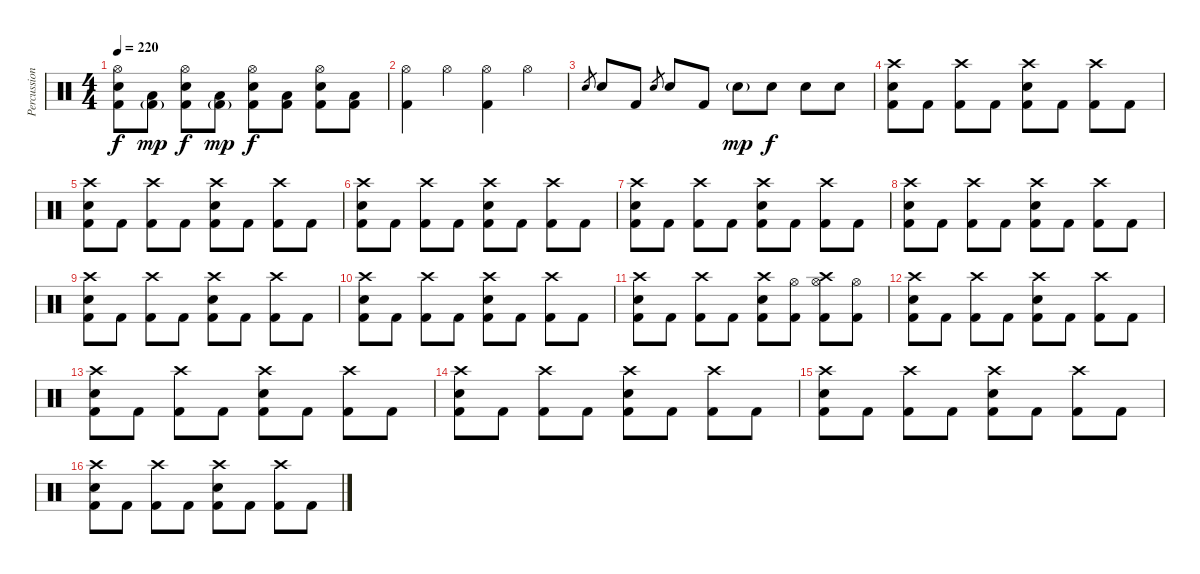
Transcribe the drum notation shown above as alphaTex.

\track ("Percussions" "Percussion") {instrument percussion}
\staff {score}
\articulation defaults
\ts (4 4)
\tempo 220
\clef neutral
\ks c
("Hi-Hat (open)" "Electric Snare (hit)" "Kick (hit) 2").8{dy f} ("Low Tom (hit)" "Kick (hit) 2"{g}).8{dy mp} ("Hi-Hat (open)" "Electric Snare (hit)" "Kick (hit) 2").8{dy f} ("Low Tom (hit)" "Kick (hit) 2"{g}).8{dy mp} ("Hi-Hat (open)" "Electric Snare (hit)" "Kick (hit) 2").8{dy f} ("Low Tom (hit)" "Kick (hit) 2").8 ("Hi-Hat (open)" "Electric Snare (hit)" "Kick (hit) 2").8 ("Low Tom (hit)" "Kick (hit) 2").8 |
("Hi-Hat (open)" "Kick (hit) 2").4 "Hi-Hat (open)".4 ("Hi-Hat (open)" "Kick (hit) 2").4 "Hi-Hat (open)".4 |
"Electric Snare (hit)".8{gr} "Electric Snare (hit)".8 "Kick (hit) 2".8 "Electric Snare (hit)".8{gr} "Electric Snare (hit)".8 "Kick (hit) 2".8 "Electric Snare (hit)"{g}.8{dy mp} "Electric Snare (hit)".8{dy f} "Electric Snare (hit)".8 "Electric Snare (hit)".8 |
("Crash high (hit)" "Electric Snare (hit)" "Kick (hit) 2").8 "Kick (hit) 2".8 ("Crash high (hit)" "Kick (hit) 2").8 "Kick (hit) 2".8 ("Crash high (hit)" "Electric Snare (hit)" "Kick (hit) 2").8 "Kick (hit) 2".8 ("Crash high (hit)" "Kick (hit) 2").8 "Kick (hit) 2".8 |
("Crash high (hit)" "Electric Snare (hit)" "Kick (hit) 2").8 "Kick (hit) 2".8 ("Crash high (hit)" "Kick (hit) 2").8 "Kick (hit) 2".8 ("Crash high (hit)" "Electric Snare (hit)" "Kick (hit) 2").8 "Kick (hit) 2".8 ("Crash high (hit)" "Kick (hit) 2").8 "Kick (hit) 2".8 |
("Crash high (hit)" "Electric Snare (hit)" "Kick (hit) 2").8 "Kick (hit) 2".8 ("Crash high (hit)" "Kick (hit) 2").8 "Kick (hit) 2".8 ("Crash high (hit)" "Electric Snare (hit)" "Kick (hit) 2").8 "Kick (hit) 2".8 ("Crash high (hit)" "Kick (hit) 2").8 "Kick (hit) 2".8 |
("Crash high (hit)" "Electric Snare (hit)" "Kick (hit) 2").8 "Kick (hit) 2".8 ("Crash high (hit)" "Kick (hit) 2").8 "Kick (hit) 2".8 ("Crash high (hit)" "Electric Snare (hit)" "Kick (hit) 2").8 "Kick (hit) 2".8 ("Crash high (hit)" "Kick (hit) 2").8 "Kick (hit) 2".8 |
("Crash high (hit)" "Electric Snare (hit)" "Kick (hit) 2").8 "Kick (hit) 2".8 ("Crash high (hit)" "Kick (hit) 2").8 "Kick (hit) 2".8 ("Crash high (hit)" "Electric Snare (hit)" "Kick (hit) 2").8 "Kick (hit) 2".8 ("Crash high (hit)" "Kick (hit) 2").8 "Kick (hit) 2".8 |
("Crash high (hit)" "Electric Snare (hit)" "Kick (hit) 2").8 "Kick (hit) 2".8 ("Crash high (hit)" "Kick (hit) 2").8 "Kick (hit) 2".8 ("Crash high (hit)" "Electric Snare (hit)" "Kick (hit) 2").8 "Kick (hit) 2".8 ("Crash high (hit)" "Kick (hit) 2").8 "Kick (hit) 2".8 |
("Crash high (hit)" "Electric Snare (hit)" "Kick (hit) 2").8 "Kick (hit) 2".8 ("Crash high (hit)" "Kick (hit) 2").8 "Kick (hit) 2".8 ("Crash high (hit)" "Electric Snare (hit)" "Kick (hit) 2").8 "Kick (hit) 2".8 ("Crash high (hit)" "Kick (hit) 2").8 "Kick (hit) 2".8 |
("Crash high (hit)" "Electric Snare (hit)" "Kick (hit) 2").8 "Kick (hit) 2".8 ("Crash high (hit)" "Kick (hit) 2").8 "Kick (hit) 2".8 ("Crash high (hit)" "Electric Snare (hit)" "Kick (hit) 2").8 ("Hi-Hat (open)" "Kick (hit) 2").8 ("Crash high (hit)" "Hi-Hat (open)" "Kick (hit) 2").8 ("Hi-Hat (open)" "Kick (hit) 2").8 |
("Crash high (hit)" "Electric Snare (hit)" "Kick (hit) 2").8 "Kick (hit) 2".8 ("Crash high (hit)" "Kick (hit) 2").8 "Kick (hit) 2".8 ("Crash high (hit)" "Electric Snare (hit)" "Kick (hit) 2").8 "Kick (hit) 2".8 ("Crash high (hit)" "Kick (hit) 2").8 "Kick (hit) 2".8 |
("Crash high (hit)" "Electric Snare (hit)" "Kick (hit) 2").8 "Kick (hit) 2".8 ("Crash high (hit)" "Kick (hit) 2").8 "Kick (hit) 2".8 ("Crash high (hit)" "Electric Snare (hit)" "Kick (hit) 2").8 "Kick (hit) 2".8 ("Crash high (hit)" "Kick (hit) 2").8 "Kick (hit) 2".8 |
("Crash high (hit)" "Electric Snare (hit)" "Kick (hit) 2").8 "Kick (hit) 2".8 ("Crash high (hit)" "Kick (hit) 2").8 "Kick (hit) 2".8 ("Crash high (hit)" "Electric Snare (hit)" "Kick (hit) 2").8 "Kick (hit) 2".8 ("Crash high (hit)" "Kick (hit) 2").8 "Kick (hit) 2".8 |
("Crash high (hit)" "Electric Snare (hit)" "Kick (hit) 2").8 "Kick (hit) 2".8 ("Crash high (hit)" "Kick (hit) 2").8 "Kick (hit) 2".8 ("Crash high (hit)" "Electric Snare (hit)" "Kick (hit) 2").8 "Kick (hit) 2".8 ("Crash high (hit)" "Kick (hit) 2").8 "Kick (hit) 2".8 |
("Crash high (hit)" "Electric Snare (hit)" "Kick (hit) 2").8 "Kick (hit) 2".8 ("Crash high (hit)" "Kick (hit) 2").8 "Kick (hit) 2".8 ("Crash high (hit)" "Electric Snare (hit)" "Kick (hit) 2").8 "Kick (hit) 2".8 ("Crash high (hit)" "Kick (hit) 2").8 "Kick (hit) 2".8
